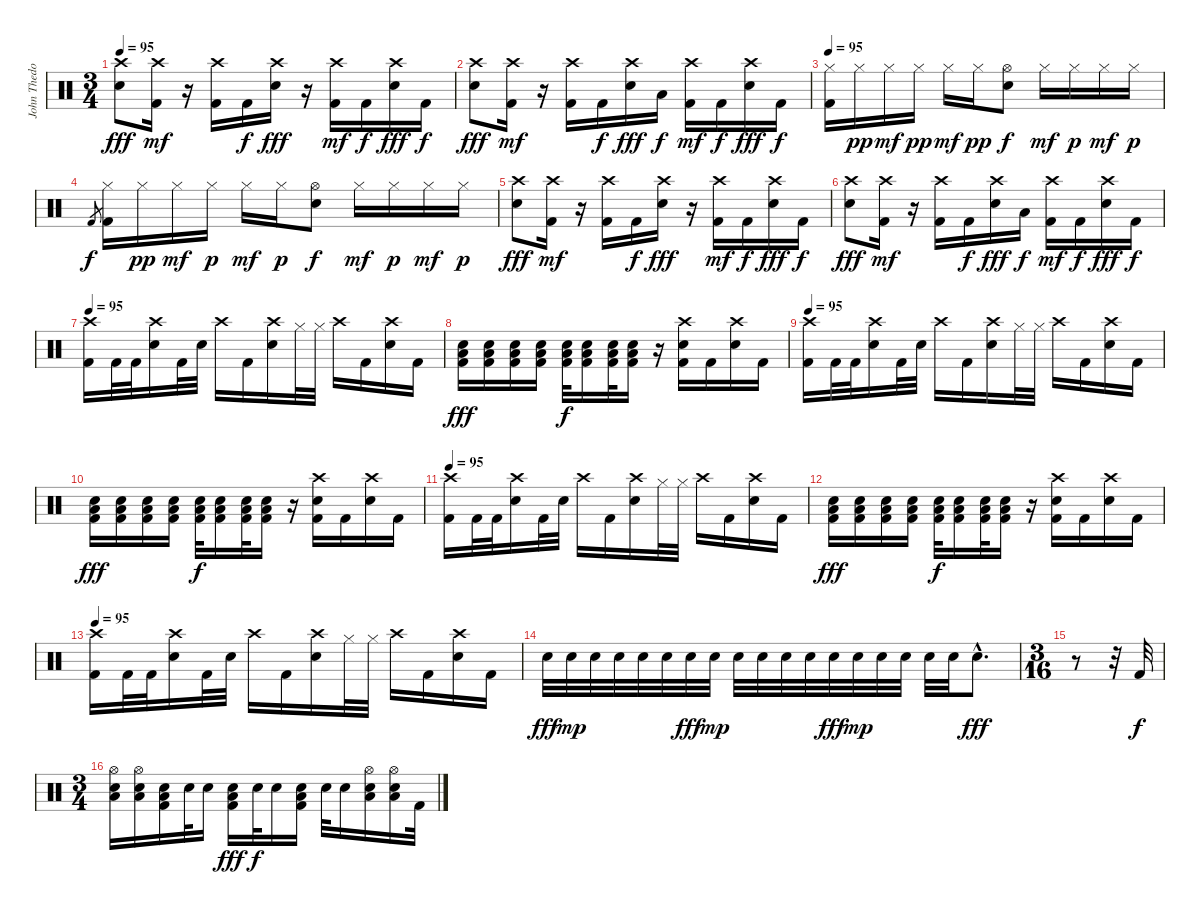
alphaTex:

\track ("John Thedore" "John Thedo") {instrument percussion}
\staff {score}
\articulation defaults
\ts (3 4)
\tempo 95
\clef neutral
\ks c
("Crash high (hit)" "Electric Snare (hit)").8{dy fff} ("Crash high (hit)" "Kick (hit) 2").16{dy mf} r.16 ("Crash high (hit)" "Kick (hit) 2").16 "Kick (hit) 2".16{dy f} ("Crash high (hit)" "Electric Snare (hit)").16{dy fff} r.16 ("Crash high (hit)" "Kick (hit) 2").16{dy mf} "Kick (hit) 2".16{dy f} ("Crash high (hit)" "Electric Snare (hit)").16{dy fff} "Kick (hit) 2".16{dy f} |
("Crash high (hit)" "Electric Snare (hit)").8{dy fff} ("Crash high (hit)" "Kick (hit) 2").16{dy mf} r.16 ("Crash high (hit)" "Kick (hit) 2").16 "Kick (hit) 2".16{dy f} ("Crash high (hit)" "Electric Snare (hit)").16{dy fff} "Low Tom (hit)".16{dy f} ("Crash high (hit)" "Kick (hit) 2").16{dy mf} "Kick (hit) 2".16{dy f} ("Crash high (hit)" "Electric Snare (hit)").16{dy fff} "Kick (hit) 2".16{dy f} |
\tempo 95
("Kick (hit) 2" "Hi-Hat (closed)").16 "Hi-Hat (closed)".16{dy pp} "Hi-Hat (closed)".16{dy mf} "Hi-Hat (closed)".16{dy pp} "Hi-Hat (closed)".16{dy mf} "Hi-Hat (closed)".16{dy pp} ("Hi-Hat (open)" "Electric Snare (hit)").8{dy f} "Hi-Hat (closed)".16{dy mf} "Hi-Hat (closed)".16{dy p} "Hi-Hat (closed)".16{dy mf} "Hi-Hat (closed)".16{dy p} |
"Kick (hit) 2".8{gr dy f} ("Kick (hit) 2" "Hi-Hat (closed)").16 "Hi-Hat (closed)".16{dy pp} "Hi-Hat (closed)".16{dy mf} "Hi-Hat (closed)".16{dy p} "Hi-Hat (closed)".16{dy mf} "Hi-Hat (closed)".16{dy p} ("Hi-Hat (open)" "Electric Snare (hit)").8{dy f} "Hi-Hat (closed)".16{dy mf} "Hi-Hat (closed)".16{dy p} "Hi-Hat (closed)".16{dy mf} "Hi-Hat (closed)".16{dy p} |
("Crash high (hit)" "Electric Snare (hit)").8{dy fff} ("Crash high (hit)" "Kick (hit) 2").16{dy mf} r.16 ("Crash high (hit)" "Kick (hit) 2").16 "Kick (hit) 2".16{dy f} ("Crash high (hit)" "Electric Snare (hit)").16{dy fff} r.16 ("Crash high (hit)" "Kick (hit) 2").16{dy mf} "Kick (hit) 2".16{dy f} ("Crash high (hit)" "Electric Snare (hit)").16{dy fff} "Kick (hit) 2".16{dy f} |
("Crash high (hit)" "Electric Snare (hit)").8{dy fff} ("Crash high (hit)" "Kick (hit) 2").16{dy mf} r.16 ("Crash high (hit)" "Kick (hit) 2").16 "Kick (hit) 2".16{dy f} ("Crash high (hit)" "Electric Snare (hit)").16{dy fff} "Low Tom (hit)".16{dy f} ("Crash high (hit)" "Kick (hit) 2").16{dy mf} "Kick (hit) 2".16{dy f} ("Crash high (hit)" "Electric Snare (hit)").16{dy fff} "Kick (hit) 2".16{dy f} |
\tempo 95
("Crash high (hit)" "Kick (hit) 2").16 "Kick (hit) 2".32 "Kick (hit) 2".32 ("Crash high (hit)" "Electric Snare (hit)").16 "Kick (hit) 2".32 "Electric Snare (hit)".32 "Crash high (hit)".16 "Kick (hit) 2".16 ("Crash high (hit)" "Electric Snare (hit)").16 "Hi-Hat (closed)".32 "Hi-Hat (closed)".32 "Crash high (hit)".16 "Kick (hit) 2".16 ("Crash high (hit)" "Electric Snare (hit)").16 "Kick (hit) 2".16 |
("Electric Snare (hit)" "Kick (hit) 2" "Low Tom (hit)").16{dy fff} ("Electric Snare (hit)" "Kick (hit) 2" "Low Tom (hit)").16 ("Electric Snare (hit)" "Kick (hit) 2" "Low Tom (hit)").16 ("Electric Snare (hit)" "Kick (hit) 2" "Low Tom (hit)").16 ("Electric Snare (hit)" "Kick (hit) 2" "Low Tom (hit)").32{dy f} ("Electric Snare (hit)" "Kick (hit) 2" "Low Tom (hit)").16 ("Electric Snare (hit)" "Kick (hit) 2" "Low Tom (hit)").32 ("Electric Snare (hit)" "Kick (hit) 2" "Low Tom (hit)").16 r.16 ("Crash high (hit)" "Electric Snare (hit)" "Kick (hit) 2").16 "Kick (hit) 2".16 ("Crash high (hit)" "Electric Snare (hit)").16 "Kick (hit) 2".16 |
\tempo 95
("Crash high (hit)" "Kick (hit) 2").16 "Kick (hit) 2".32 "Kick (hit) 2".32 ("Crash high (hit)" "Electric Snare (hit)").16 "Kick (hit) 2".32 "Electric Snare (hit)".32 "Crash high (hit)".16 "Kick (hit) 2".16 ("Crash high (hit)" "Electric Snare (hit)").16 "Hi-Hat (closed)".32 "Hi-Hat (closed)".32 "Crash high (hit)".16 "Kick (hit) 2".16 ("Crash high (hit)" "Electric Snare (hit)").16 "Kick (hit) 2".16 |
("Electric Snare (hit)" "Kick (hit) 2" "Low Tom (hit)").16{dy fff} ("Electric Snare (hit)" "Kick (hit) 2" "Low Tom (hit)").16 ("Electric Snare (hit)" "Kick (hit) 2" "Low Tom (hit)").16 ("Electric Snare (hit)" "Kick (hit) 2" "Low Tom (hit)").16 ("Electric Snare (hit)" "Kick (hit) 2" "Low Tom (hit)").32{dy f} ("Electric Snare (hit)" "Kick (hit) 2" "Low Tom (hit)").16 ("Electric Snare (hit)" "Kick (hit) 2" "Low Tom (hit)").32 ("Electric Snare (hit)" "Kick (hit) 2" "Low Tom (hit)").16 r.16 ("Crash high (hit)" "Electric Snare (hit)" "Kick (hit) 2").16 "Kick (hit) 2".16 ("Crash high (hit)" "Electric Snare (hit)").16 "Kick (hit) 2".16 |
\tempo 95
("Crash high (hit)" "Kick (hit) 2").16 "Kick (hit) 2".32 "Kick (hit) 2".32 ("Crash high (hit)" "Electric Snare (hit)").16 "Kick (hit) 2".32 "Electric Snare (hit)".32 "Crash high (hit)".16 "Kick (hit) 2".16 ("Crash high (hit)" "Electric Snare (hit)").16 "Hi-Hat (closed)".32 "Hi-Hat (closed)".32 "Crash high (hit)".16 "Kick (hit) 2".16 ("Crash high (hit)" "Electric Snare (hit)").16 "Kick (hit) 2".16 |
("Electric Snare (hit)" "Kick (hit) 2" "Low Tom (hit)").16{dy fff} ("Electric Snare (hit)" "Kick (hit) 2" "Low Tom (hit)").16 ("Electric Snare (hit)" "Kick (hit) 2" "Low Tom (hit)").16 ("Electric Snare (hit)" "Kick (hit) 2" "Low Tom (hit)").16 ("Electric Snare (hit)" "Kick (hit) 2" "Low Tom (hit)").32{dy f} ("Electric Snare (hit)" "Kick (hit) 2" "Low Tom (hit)").16 ("Electric Snare (hit)" "Kick (hit) 2" "Low Tom (hit)").32 ("Electric Snare (hit)" "Kick (hit) 2" "Low Tom (hit)").16 r.16 ("Crash high (hit)" "Electric Snare (hit)" "Kick (hit) 2").16 "Kick (hit) 2".16 ("Crash high (hit)" "Electric Snare (hit)").16 "Kick (hit) 2".16 |
\tempo 95
("Crash high (hit)" "Kick (hit) 2").16 "Kick (hit) 2".32 "Kick (hit) 2".32 ("Crash high (hit)" "Electric Snare (hit)").16 "Kick (hit) 2".32 "Electric Snare (hit)".32 "Crash high (hit)".16 "Kick (hit) 2".16 ("Crash high (hit)" "Electric Snare (hit)").16 "Hi-Hat (closed)".32 "Hi-Hat (closed)".32 "Crash high (hit)".16 "Kick (hit) 2".16 ("Crash high (hit)" "Electric Snare (hit)").16 "Kick (hit) 2".16 |
"Electric Snare (hit)".32{dy fff} "Electric Snare (hit)".32{dy mp} "Electric Snare (hit)".32 "Electric Snare (hit)".32 "Electric Snare (hit)".32 "Electric Snare (hit)".32 "Electric Snare (hit)".32{dy fff} "Electric Snare (hit)".32{dy mp} "Electric Snare (hit)".32 "Electric Snare (hit)".32 "Electric Snare (hit)".32 "Electric Snare (hit)".32 "Electric Snare (hit)".32{dy fff} "Electric Snare (hit)".32{dy mp} "Electric Snare (hit)".32 "Electric Snare (hit)".32 "Electric Snare (hit)".32 "Electric Snare (hit)".32 "Electric Snare (hit)"{hac}.8{d dy fff} |
\ts (3 16)
r.8 r.32 "Kick (hit) 2".32{dy f} |
\ts (3 4)
("Electric Snare (hit)" "Low Tom (hit)" "Hi-Hat (open)").16 ("Electric Snare (hit)" "Low Tom (hit)" "Hi-Hat (open)").16 ("Electric Snare (hit)" "Kick (hit) 2" "Low Tom (hit)").16 "Electric Snare (hit)".32 "Electric Snare (hit)".16 ("Electric Snare (hit)" "Kick (hit) 2" "Low Tom (hit)").16{dy fff} "Electric Snare (hit)".32{dy f} "Electric Snare (hit)".16 ("Electric Snare (hit)" "Kick (hit) 2" "Low Tom (hit)").16 "Electric Snare (hit)".32 "Electric Snare (hit)".16 ("Electric Snare (hit)" "Low Tom (hit)" "Hi-Hat (open)").16 ("Electric Snare (hit)" "Low Tom (hit)" "Hi-Hat (open)").16 "Kick (hit) 2".32
